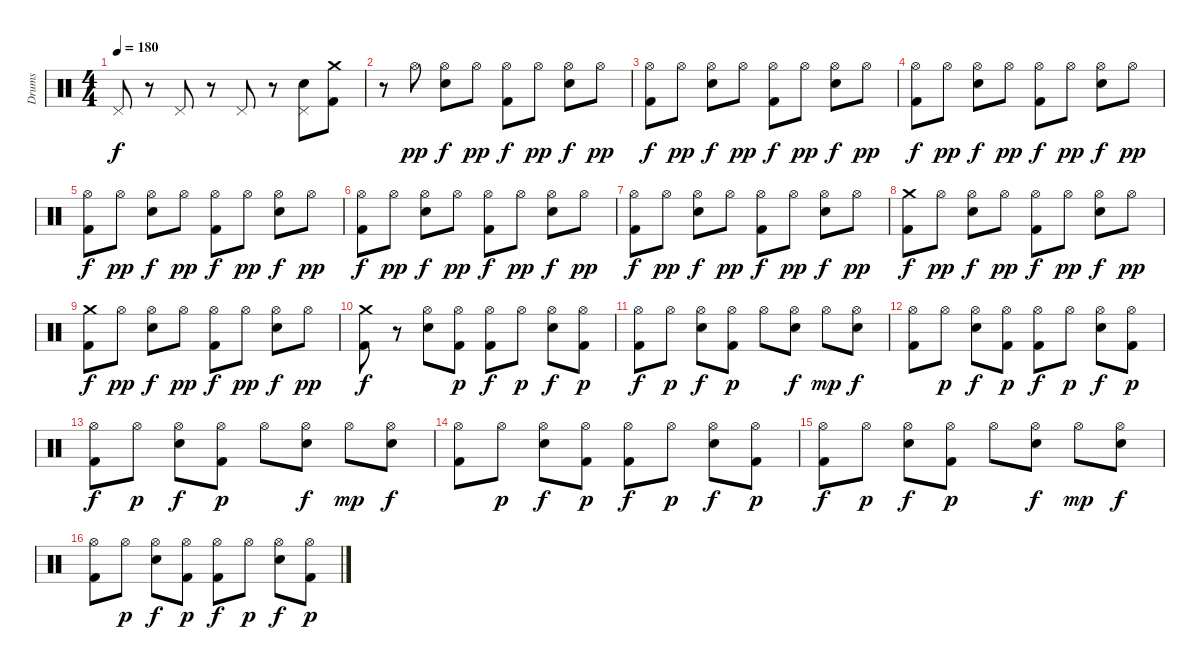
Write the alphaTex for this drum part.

\track ("Drums" "Drums") {instrument percussion}
\staff {score}
\articulation defaults
\ts (4 4)
\tempo 180
\clef neutral
\ks c "Pedal Hi-Hat (hit)".8{dy f}
r.8 "Pedal Hi-Hat (hit)".8 r.8 "Pedal Hi-Hat (hit)".8 r.8 ("Electric Snare (hit)" "Pedal Hi-Hat (hit)").8 ("Crash medium (hit)" "Kick (hit) 2").8 |
r.8 "Hi-Hat (open)".8{dy pp} ("Hi-Hat (open)" "Electric Snare (hit)").8{dy f} "Hi-Hat (open)".8{dy pp} ("Hi-Hat (open)" "Kick (hit) 2").8{dy f} "Hi-Hat (open)".8{dy pp} ("Hi-Hat (open)" "Electric Snare (hit)").8{dy f} "Hi-Hat (open)".8{dy pp} |
("Hi-Hat (open)" "Kick (hit) 2").8{dy f} "Hi-Hat (open)".8{dy pp} ("Hi-Hat (open)" "Electric Snare (hit)").8{dy f} "Hi-Hat (open)".8{dy pp} ("Hi-Hat (open)" "Kick (hit) 2").8{dy f} "Hi-Hat (open)".8{dy pp} ("Hi-Hat (open)" "Electric Snare (hit)").8{dy f} "Hi-Hat (open)".8{dy pp} |
("Hi-Hat (open)" "Kick (hit) 2").8{dy f} "Hi-Hat (open)".8{dy pp} ("Hi-Hat (open)" "Electric Snare (hit)").8{dy f} "Hi-Hat (open)".8{dy pp} ("Hi-Hat (open)" "Kick (hit) 2").8{dy f} "Hi-Hat (open)".8{dy pp} ("Hi-Hat (open)" "Electric Snare (hit)").8{dy f} "Hi-Hat (open)".8{dy pp} |
("Hi-Hat (open)" "Kick (hit) 2").8{dy f} "Hi-Hat (open)".8{dy pp} ("Hi-Hat (open)" "Electric Snare (hit)").8{dy f} "Hi-Hat (open)".8{dy pp} ("Hi-Hat (open)" "Kick (hit) 2").8{dy f} "Hi-Hat (open)".8{dy pp} ("Hi-Hat (open)" "Electric Snare (hit)").8{dy f} "Hi-Hat (open)".8{dy pp} |
("Hi-Hat (open)" "Kick (hit) 2").8{dy f} "Hi-Hat (open)".8{dy pp} ("Hi-Hat (open)" "Electric Snare (hit)").8{dy f} "Hi-Hat (open)".8{dy pp} ("Hi-Hat (open)" "Kick (hit) 2").8{dy f} "Hi-Hat (open)".8{dy pp} ("Hi-Hat (open)" "Electric Snare (hit)").8{dy f} "Hi-Hat (open)".8{dy pp} |
("Hi-Hat (open)" "Kick (hit) 2").8{dy f} "Hi-Hat (open)".8{dy pp} ("Hi-Hat (open)" "Electric Snare (hit)").8{dy f} "Hi-Hat (open)".8{dy pp} ("Hi-Hat (open)" "Kick (hit) 2").8{dy f} "Hi-Hat (open)".8{dy pp} ("Hi-Hat (open)" "Electric Snare (hit)").8{dy f} "Hi-Hat (open)".8{dy pp} |
("Crash medium (hit)" "Kick (hit) 2").8{dy f} "Hi-Hat (open)".8{dy pp} ("Hi-Hat (open)" "Electric Snare (hit)").8{dy f} "Hi-Hat (open)".8{dy pp} ("Hi-Hat (open)" "Kick (hit) 2").8{dy f} "Hi-Hat (open)".8{dy pp} ("Hi-Hat (open)" "Electric Snare (hit)").8{dy f} "Hi-Hat (open)".8{dy pp} |
("Crash medium (hit)" "Kick (hit) 2").8{dy f} "Hi-Hat (open)".8{dy pp} ("Hi-Hat (open)" "Electric Snare (hit)").8{dy f} "Hi-Hat (open)".8{dy pp} ("Hi-Hat (open)" "Kick (hit) 2").8{dy f} "Hi-Hat (open)".8{dy pp} ("Hi-Hat (open)" "Electric Snare (hit)").8{dy f} "Hi-Hat (open)".8{dy pp} |
("Crash medium (hit)" "Kick (hit) 2").8{dy f} r.8 ("Hi-Hat (open)" "Electric Snare (hit)").8 ("Hi-Hat (open)" "Kick (hit) 2").8{dy p} ("Hi-Hat (open)" "Kick (hit) 2").8{dy f} "Hi-Hat (open)".8{dy p} ("Hi-Hat (open)" "Electric Snare (hit)").8{dy f} ("Hi-Hat (open)" "Kick (hit) 2").8{dy p} |
("Hi-Hat (open)" "Kick (hit) 2").8{dy f} "Hi-Hat (open)".8{dy p} ("Hi-Hat (open)" "Electric Snare (hit)").8{dy f} ("Hi-Hat (open)" "Kick (hit) 2").8{dy p} "Hi-Hat (open)".8 ("Hi-Hat (open)" "Electric Snare (hit)").8{dy f} "Hi-Hat (open)".8{dy mp} ("Hi-Hat (open)" "Electric Snare (hit)").8{dy f} |
("Hi-Hat (open)" "Kick (hit) 2").8 "Hi-Hat (open)".8{dy p} ("Hi-Hat (open)" "Electric Snare (hit)").8{dy f} ("Hi-Hat (open)" "Kick (hit) 2").8{dy p} ("Hi-Hat (open)" "Kick (hit) 2").8{dy f} "Hi-Hat (open)".8{dy p} ("Hi-Hat (open)" "Electric Snare (hit)").8{dy f} ("Hi-Hat (open)" "Kick (hit) 2").8{dy p} |
("Hi-Hat (open)" "Kick (hit) 2").8{dy f} "Hi-Hat (open)".8{dy p} ("Hi-Hat (open)" "Electric Snare (hit)").8{dy f} ("Hi-Hat (open)" "Kick (hit) 2").8{dy p} "Hi-Hat (open)".8 ("Hi-Hat (open)" "Electric Snare (hit)").8{dy f} "Hi-Hat (open)".8{dy mp} ("Hi-Hat (open)" "Electric Snare (hit)").8{dy f} |
("Hi-Hat (open)" "Kick (hit) 2").8 "Hi-Hat (open)".8{dy p} ("Hi-Hat (open)" "Electric Snare (hit)").8{dy f} ("Hi-Hat (open)" "Kick (hit) 2").8{dy p} ("Hi-Hat (open)" "Kick (hit) 2").8{dy f} "Hi-Hat (open)".8{dy p} ("Hi-Hat (open)" "Electric Snare (hit)").8{dy f} ("Hi-Hat (open)" "Kick (hit) 2").8{dy p} |
("Hi-Hat (open)" "Kick (hit) 2").8{dy f} "Hi-Hat (open)".8{dy p} ("Hi-Hat (open)" "Electric Snare (hit)").8{dy f} ("Hi-Hat (open)" "Kick (hit) 2").8{dy p} "Hi-Hat (open)".8 ("Hi-Hat (open)" "Electric Snare (hit)").8{dy f} "Hi-Hat (open)".8{dy mp} ("Hi-Hat (open)" "Electric Snare (hit)").8{dy f} |
("Hi-Hat (open)" "Kick (hit) 2").8 "Hi-Hat (open)".8{dy p} ("Hi-Hat (open)" "Electric Snare (hit)").8{dy f} ("Hi-Hat (open)" "Kick (hit) 2").8{dy p} ("Hi-Hat (open)" "Kick (hit) 2").8{dy f} "Hi-Hat (open)".8{dy p} ("Hi-Hat (open)" "Electric Snare (hit)").8{dy f} ("Hi-Hat (open)" "Kick (hit) 2").8{dy p}
